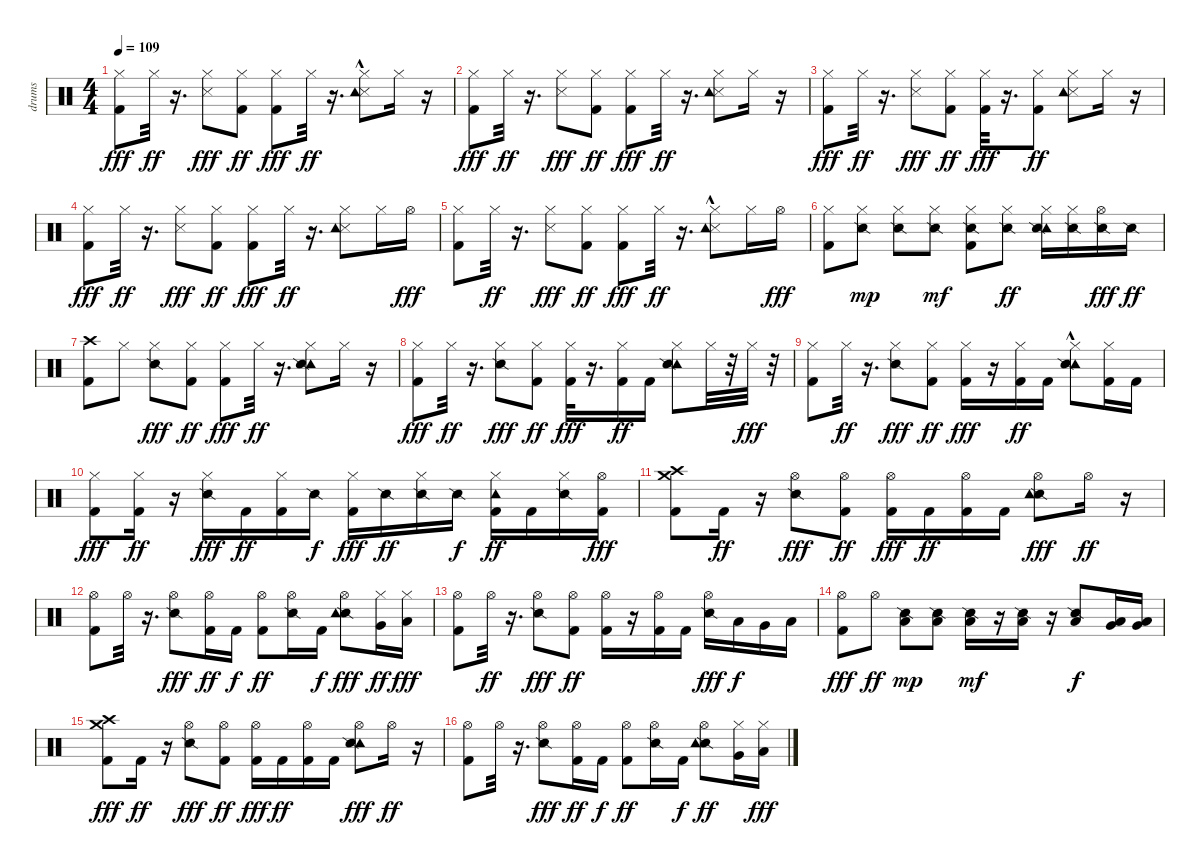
\track ("drums" "drums") {instrument percussion}
\staff {score}
\articulation defaults
\ts (4 4)
\tempo 109
\clef neutral
\ks c
("Kick (hit) 2" "Hi-Hat (closed)").8{dy fff} "Hi-Hat (closed)".32{dy ff} r.16{d} ("Snare (side stick) 3" "Hi-Hat (closed)").8{dy fff} ("Kick (hit) 2" "Hi-Hat (closed)").8{dy ff} ("Kick (hit) 2" "Hi-Hat (closed)").8{dy fff} "Hi-Hat (closed)".32{dy ff} r.16{d} ("Snare (side stick) 3" "Hi-Hat (closed)" "Tambourine (hit)"{hac}).8 "Hi-Hat (closed)".16 r.16 |
("Kick (hit) 2" "Hi-Hat (closed)").8{dy fff} "Hi-Hat (closed)".32{dy ff} r.16{d} ("Snare (side stick) 3" "Hi-Hat (closed)").8{dy fff} ("Kick (hit) 2" "Hi-Hat (closed)").8{dy ff} ("Kick (hit) 2" "Hi-Hat (closed)").8{dy fff} "Hi-Hat (closed)".32{dy ff} r.16{d} ("Snare (side stick) 3" "Hi-Hat (closed)" "Tambourine (hit)").8 "Hi-Hat (closed)".16 r.16 |
("Kick (hit) 2" "Hi-Hat (closed)").8{dy fff} "Hi-Hat (closed)".32{dy ff} r.16{d} ("Snare (side stick) 3" "Hi-Hat (closed)").8{dy fff} ("Kick (hit) 2" "Hi-Hat (closed)").8{dy ff} ("Kick (hit) 2" "Hi-Hat (closed)").32{dy fff} r.16{d} ("Kick (hit) 2" "Hi-Hat (closed)").8{dy ff} ("Snare (side stick) 3" "Hi-Hat (closed)" "Tambourine (hit)").8 "Hi-Hat (closed)".16 r.16 |
("Kick (hit) 2" "Hi-Hat (closed)").8{dy fff} "Hi-Hat (closed)".32{dy ff} r.16{d} ("Snare (side stick) 3" "Hi-Hat (closed)").8{dy fff} ("Kick (hit) 2" "Hi-Hat (closed)").8{dy ff} ("Kick (hit) 2" "Hi-Hat (closed)").8{dy fff} "Hi-Hat (closed)".32{dy ff} r.16{d} ("Snare (side stick) 3" "Hi-Hat (closed)" "Tambourine (hit)").8 "Hi-Hat (closed)".16 "Hi-Hat (open)".16{dy fff} |
("Kick (hit) 2" "Hi-Hat (closed)").8 "Hi-Hat (closed)".32{dy ff} r.16{d} ("Snare (side stick) 3" "Hi-Hat (closed)").8{dy fff} ("Kick (hit) 2" "Hi-Hat (closed)").8{dy ff} ("Kick (hit) 2" "Hi-Hat (closed)").8{dy fff} "Hi-Hat (closed)".32{dy ff} r.16{d} ("Snare (side stick) 3" "Hi-Hat (closed)" "Tambourine (hit)"{hac}).8 "Hi-Hat (closed)".16 "Hi-Hat (open)".16{dy fff} |
("Kick (hit) 2" "Hi-Hat (closed)").8 ("Hi-Hat (closed)" "Snare (side stick) 2").8{dy mp} ("Hi-Hat (closed)" "Snare (side stick) 2").8 ("Hi-Hat (closed)" "Snare (side stick) 2").8{dy mf} ("Kick (hit) 2" "Hi-Hat (closed)" "Snare (side stick) 2").8 ("Hi-Hat (closed)" "Snare (side stick) 2").8{dy ff} ("Hi-Hat (closed)" "Tambourine (hit)" "Snare (side stick) 2").16 ("Hi-Hat (closed)" "Snare (side stick) 2").16 ("Hi-Hat (open)" "Snare (side stick) 2").16{dy fff} "Snare (side stick) 2".16{dy ff} |
("Kick (hit) 2" "Crash high (hit)").8 "Hi-Hat (closed)".8 ("Hi-Hat (closed)" "Snare (side stick) 2").8{dy fff} ("Kick (hit) 2" "Hi-Hat (closed)").8{dy ff} ("Kick (hit) 2" "Hi-Hat (closed)").8{dy fff} "Hi-Hat (closed)".32{dy ff} r.16{d} ("Hi-Hat (closed)" "Tambourine (hit)" "Snare (side stick) 2").8 "Hi-Hat (closed)".16 r.16 |
("Kick (hit) 2" "Hi-Hat (closed)").8{dy fff} "Hi-Hat (closed)".32{dy ff} r.16{d} ("Hi-Hat (closed)" "Snare (side stick) 2").8{dy fff} ("Kick (hit) 2" "Hi-Hat (closed)").8{dy ff} ("Kick (hit) 2" "Hi-Hat (closed)").32{dy fff} r.16{d} ("Kick (hit) 2" "Hi-Hat (closed)").16{dy ff} "Kick (hit) 2".16 ("Hi-Hat (closed)" "Tambourine (hit)" "Snare (side stick) 2").8 "Hi-Hat (closed)".32 r.32 "Hi-Hat (closed)".32{dy fff} r.32 |
("Kick (hit) 2" "Hi-Hat (closed)").8 "Hi-Hat (closed)".32{dy ff} r.16{d} ("Hi-Hat (closed)" "Snare (side stick) 2").8{dy fff} ("Kick (hit) 2" "Hi-Hat (closed)").8{dy ff} ("Kick (hit) 2" "Hi-Hat (closed)").16{dy fff} r.16 ("Kick (hit) 2" "Hi-Hat (closed)").16{dy ff} "Kick (hit) 2".16 ("Hi-Hat (closed)" "Tambourine (hit)"{hac} "Snare (side stick) 2").8 ("Kick (hit) 2" "Hi-Hat (closed)").16 "Kick (hit) 2".16 |
("Kick (hit) 2" "Hi-Hat (closed)").8{dy fff} ("Kick (hit) 2" "Hi-Hat (closed)").16{dy ff} r.16 ("Hi-Hat (closed)" "Snare (side stick) 2").16{dy fff} "Kick (hit) 2".16{dy ff} ("Kick (hit) 2" "Hi-Hat (closed)").16 "Snare (side stick) 2".16{dy f} ("Kick (hit) 2" "Hi-Hat (closed)").16{dy fff} "Snare (side stick) 2".16{dy ff} ("Snare (side stick) 2" "Hi-Hat (closed)").16 "Snare (side stick) 2".16{dy f} ("Hi-Hat (closed)" "Tambourine (hit)" "Kick (hit) 2").16{dy ff} "Kick (hit) 2".16 ("Snare (side stick) 2" "Hi-Hat (closed)").16 ("Kick (hit) 2" "Hi-Hat (open)").16{dy fff} |
("Crash high (hit)" "Kick (hit) 2" "Crash medium (hit)").8 "Kick (hit) 2".16{dy ff} r.16 ("Hi-Hat (open)" "Snare (side stick) 2").8{dy fff} ("Kick (hit) 2" "Hi-Hat (open)").8{dy ff} ("Kick (hit) 2" "Hi-Hat (open)").16{dy fff} "Kick (hit) 2".16{dy ff} ("Hi-Hat (open)" "Kick (hit) 2").16 "Kick (hit) 2".16 ("Snare (side stick) 2" "Tambourine (hit)" "Hi-Hat (open)").8{dy fff} "Hi-Hat (open)".16{dy ff} r.16 |
("Hi-Hat (open)" "Kick (hit) 2").8 "Hi-Hat (open)".32 r.16{d} ("Hi-Hat (open)" "Snare (side stick) 2").8{dy fff} ("Kick (hit) 2" "Hi-Hat (open)").16{dy ff} "Kick (hit) 2".16{dy f} ("Hi-Hat (open)" "Kick (hit) 2").8{dy ff} ("Snare (side stick) 2" "Hi-Hat (open)").16 "Kick (hit) 2".16{dy f} ("Snare (side stick) 2" "Tambourine (hit)" "Hi-Hat (open)").8{dy fff} ("Very Low Tom (hit)" "Hi-Hat (closed)").16{dy ff} ("Hi-Hat (closed)" "Low Floor Tom (hit)").16{dy fff} |
("Kick (hit) 2" "Hi-Hat (open)").8 "Hi-Hat (open)".32{dy ff} r.16{d} ("Hi-Hat (open)" "Snare (side stick) 2").8{dy fff} ("Kick (hit) 2" "Hi-Hat (open)").8{dy ff} ("Hi-Hat (open)" "Kick (hit) 2").16 r.16 ("Hi-Hat (open)" "Kick (hit) 2").16 "Kick (hit) 2".16 ("Hi-Hat (open)" "Snare (side stick) 2").16{dy fff} "Low Tom (hit)".16{dy f} "Very Low Tom (hit)".16 "Low Floor Tom (hit)".16 |
("Kick (hit) 2" "Hi-Hat (open)").8{dy fff} "Hi-Hat (open)".8{dy ff} ("Low Floor Tom (hit)" "Snare (side stick) 2").8{dy mp} ("Low Floor Tom (hit)" "Snare (side stick) 2").8 ("Low Floor Tom (hit)" "Snare (side stick) 2").16{dy mf} r.16 ("Low Floor Tom (hit)" "Snare (side stick) 2").16 r.16 ("Low Floor Tom (hit)" "Snare (side stick) 2").8{dy f} ("Low Tom (hit)" "Very Low Tom (hit)").16 ("Very Low Tom (hit)" "Low Floor Tom (hit)").16 |
("Kick (hit) 2" "Crash medium (hit)" "Crash high (hit)").8{dy fff} "Kick (hit) 2".16{dy ff} r.16 ("Snare (side stick) 2" "Hi-Hat (open)").8{dy fff} ("Kick (hit) 2" "Hi-Hat (open)").8{dy ff} ("Kick (hit) 2" "Hi-Hat (open)").16{dy fff} "Kick (hit) 2".16{dy ff} ("Kick (hit) 2" "Hi-Hat (open)").16 "Kick (hit) 2".16 ("Tambourine (hit)" "Hi-Hat (open)" "Snare (side stick) 2").8{dy fff} "Hi-Hat (open)".16{dy ff} r.16 |
("Hi-Hat (open)" "Kick (hit) 2").8 "Hi-Hat (open)".32 r.16{d} ("Snare (side stick) 2" "Hi-Hat (open)").8{dy fff} ("Kick (hit) 2" "Hi-Hat (open)").16{dy ff} "Kick (hit) 2".16{dy f} ("Hi-Hat (open)" "Kick (hit) 2").8{dy ff} ("Hi-Hat (open)" "Snare (side stick) 2").16 "Kick (hit) 2".16{dy f} ("Hi-Hat (open)" "Snare (side stick) 2" "Tambourine (hit)").8{dy ff} ("Hi-Hat (closed)" "Very Low Tom (hit)").16 ("Low Floor Tom (hit)" "Hi-Hat (closed)").16{dy fff}
